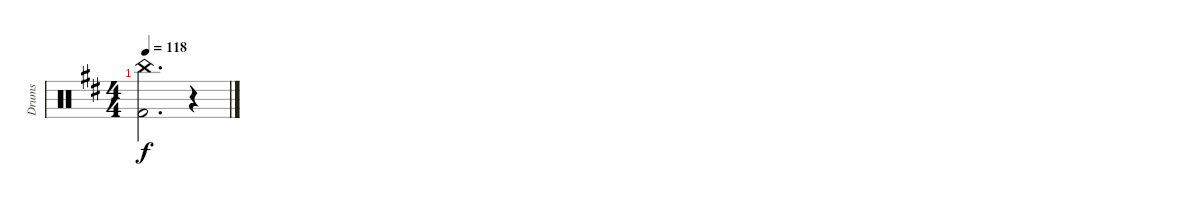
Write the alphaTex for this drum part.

\track ("Drums" "Drums") {instrument percussion}
\staff {score}
\articulation defaults
\ts (4 4)
\tempo 118
\clef neutral
\ks bminor
("China (hit)" "Kick (hit) 2").2{d dy f} r.4
